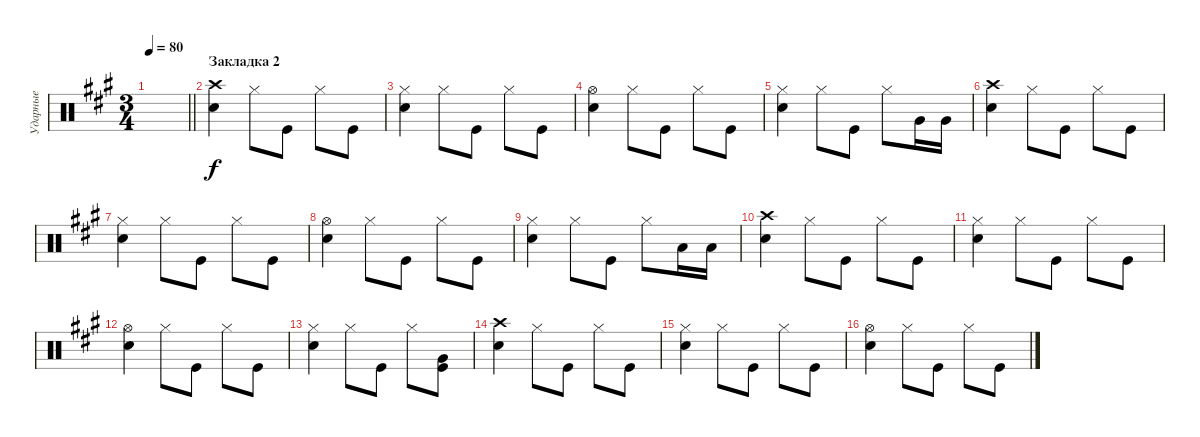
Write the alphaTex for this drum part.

\track ("Ударные" "Ударные") {instrument percussion}
\staff {score}
\articulation defaults
\ts (3 4)
\tempo 80
\clef neutral
\barLineRight lightlight
\ks f#minor
|
\section ("" "Закладка 2")
("Snare (hit) 2" "Crash high (hit)").4 "Hi-Hat (closed)".8 "Kick (hit)".8 "Hi-Hat (closed)".8 "Kick (hit)".8 |
("Snare (hit) 2" "Hi-Hat (closed)").4 "Hi-Hat (closed)".8 "Kick (hit)".8 "Hi-Hat (closed)".8 "Kick (hit)".8 |
("Snare (hit) 2" "Hi-Hat (open)").4 "Hi-Hat (closed)".8 "Kick (hit)".8 "Hi-Hat (closed)".8 "Kick (hit)".8 |
("Snare (hit) 2" "Hi-Hat (closed)").4 "Hi-Hat (closed)".8 "Kick (hit)".8 "Hi-Hat (closed)".8 "Very Low Tom (hit)".16 "Very Low Tom (hit)".16 |
("Snare (hit) 2" "Crash high (hit)").4 "Hi-Hat (closed)".8 "Kick (hit)".8 "Hi-Hat (closed)".8 "Kick (hit)".8 |
("Snare (hit) 2" "Hi-Hat (closed)").4 "Hi-Hat (closed)".8 "Kick (hit)".8 "Hi-Hat (closed)".8 "Kick (hit)".8 |
("Snare (hit) 2" "Hi-Hat (open)").4 "Hi-Hat (closed)".8 "Kick (hit)".8 "Hi-Hat (closed)".8 "Kick (hit)".8 |
("Snare (hit) 2" "Hi-Hat (closed)").4 "Hi-Hat (closed)".8 "Kick (hit)".8 "Hi-Hat (closed)".8 "Low Tom (hit)".16 "Low Tom (hit)".16 |
("Snare (hit) 2" "Crash high (hit)").4 "Hi-Hat (closed)".8 "Kick (hit)".8 "Hi-Hat (closed)".8 "Kick (hit)".8 |
("Snare (hit) 2" "Hi-Hat (closed)").4 "Hi-Hat (closed)".8 "Kick (hit)".8 "Hi-Hat (closed)".8 "Kick (hit)".8 |
("Snare (hit) 2" "Hi-Hat (open)").4 "Hi-Hat (closed)".8 "Kick (hit)".8 "Hi-Hat (closed)".8 "Kick (hit)".8 |
("Snare (hit) 2" "Hi-Hat (closed)").4 "Hi-Hat (closed)".8 "Kick (hit)".8 "Hi-Hat (closed)".8 ("Kick (hit)" "Very Low Tom (hit)").8 |
("Snare (hit) 2" "Crash high (hit)").4 "Hi-Hat (closed)".8 "Kick (hit)".8 "Hi-Hat (closed)".8 "Kick (hit)".8 |
("Snare (hit) 2" "Hi-Hat (closed)").4 "Hi-Hat (closed)".8 "Kick (hit)".8 "Hi-Hat (closed)".8 "Kick (hit)".8 |
("Snare (hit) 2" "Hi-Hat (open)").4 "Hi-Hat (closed)".8 "Kick (hit)".8 "Hi-Hat (closed)".8 "Kick (hit)".8
